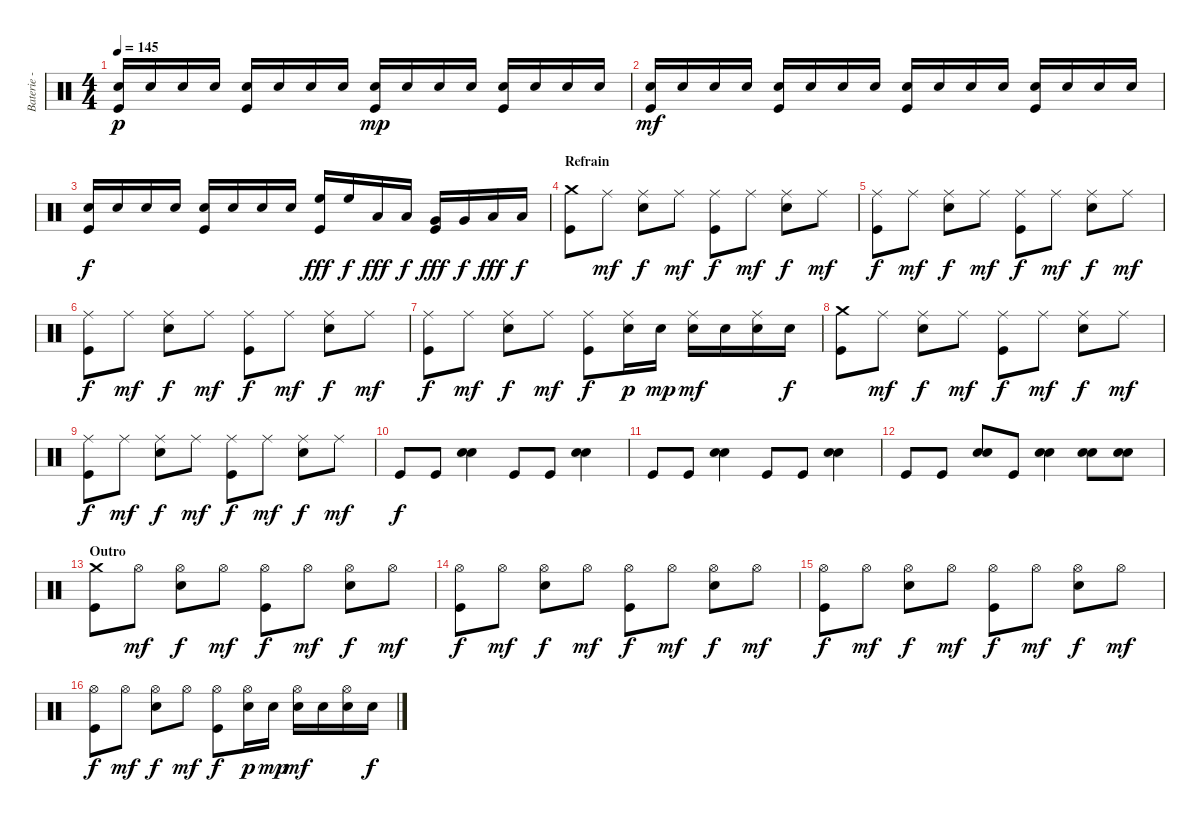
\track ("Baterie - Alex" "Baterie - ") {instrument percussion}
\staff {score}
\articulation defaults
\ts (4 4)
\tempo 145
\clef neutral
\ks c
("Electric Snare (hit)" "Kick (hit)").16{dy p} "Electric Snare (hit)".16 "Electric Snare (hit)".16 "Electric Snare (hit)".16 ("Electric Snare (hit)" "Kick (hit)").16 "Electric Snare (hit)".16 "Electric Snare (hit)".16 "Electric Snare (hit)".16 ("Electric Snare (hit)" "Kick (hit)").16{dy mp} "Electric Snare (hit)".16 "Electric Snare (hit)".16 "Electric Snare (hit)".16 ("Electric Snare (hit)" "Kick (hit)").16 "Electric Snare (hit)".16 "Electric Snare (hit)".16 "Electric Snare (hit)".16 |
("Electric Snare (hit)" "Kick (hit)").16{dy mf} "Electric Snare (hit)".16 "Electric Snare (hit)".16 "Electric Snare (hit)".16 ("Electric Snare (hit)" "Kick (hit)").16 "Electric Snare (hit)".16 "Electric Snare (hit)".16 "Electric Snare (hit)".16 ("Electric Snare (hit)" "Kick (hit)").16 "Electric Snare (hit)".16 "Electric Snare (hit)".16 "Electric Snare (hit)".16 ("Electric Snare (hit)" "Kick (hit)").16 "Electric Snare (hit)".16 "Electric Snare (hit)".16 "Electric Snare (hit)".16 |
("Electric Snare (hit)" "Kick (hit)").16{dy f} "Electric Snare (hit)".16 "Electric Snare (hit)".16 "Electric Snare (hit)".16 ("Electric Snare (hit)" "Kick (hit)").16 "Electric Snare (hit)".16 "Electric Snare (hit)".16 "Electric Snare (hit)".16 ("High Floor Tom (hit)" "Kick (hit)").16{dy fff} "High Floor Tom (hit)".16{dy f} "Low Tom (hit)".16{dy fff} "Low Tom (hit)".16{dy f} ("Very Low Tom (hit)" "Kick (hit)").16{dy fff} "Very Low Tom (hit)".16{dy f} "Low Floor Tom (hit)".16{dy fff} "Low Floor Tom (hit)".16{dy f} |
\section ("" "Refrain")
("Crash medium (hit)" "Kick (hit)").8 "Ride (middle)".8{dy mf} ("Ride (middle)" "Electric Snare (hit)").8{dy f} "Ride (middle)".8{dy mf} ("Ride (middle)" "Kick (hit)").8{dy f} "Ride (middle)".8{dy mf} ("Ride (middle)" "Electric Snare (hit)").8{dy f} "Ride (middle)".8{dy mf} |
("Ride (middle)" "Kick (hit)").8{dy f} "Ride (middle)".8{dy mf} ("Ride (middle)" "Electric Snare (hit)").8{dy f} "Ride (middle)".8{dy mf} ("Ride (middle)" "Kick (hit)").8{dy f} "Ride (middle)".8{dy mf} ("Ride (middle)" "Electric Snare (hit)").8{dy f} "Ride (middle)".8{dy mf} |
("Ride (middle)" "Kick (hit)").8{dy f} "Ride (middle)".8{dy mf} ("Ride (middle)" "Electric Snare (hit)").8{dy f} "Ride (middle)".8{dy mf} ("Ride (middle)" "Kick (hit)").8{dy f} "Ride (middle)".8{dy mf} ("Ride (middle)" "Electric Snare (hit)").8{dy f} "Ride (middle)".8{dy mf} |
("Ride (middle)" "Kick (hit)").8{dy f} "Ride (middle)".8{dy mf} ("Ride (middle)" "Electric Snare (hit)").8{dy f} "Ride (middle)".8{dy mf} ("Ride (middle)" "Kick (hit)").8{dy f} ("Ride (middle)" "Electric Snare (hit)").16{dy p} "Electric Snare (hit)".16{dy mp} ("Ride (middle)" "Electric Snare (hit)").16{dy mf} "Electric Snare (hit)".16 ("Ride (middle)" "Electric Snare (hit)").16 "Electric Snare (hit)".16{dy f} |
("Crash medium (hit)" "Kick (hit)").8 "Ride (middle)".8{dy mf} ("Ride (middle)" "Electric Snare (hit)").8{dy f} "Ride (middle)".8{dy mf} ("Ride (middle)" "Kick (hit)").8{dy f} "Ride (middle)".8{dy mf} ("Ride (middle)" "Electric Snare (hit)").8{dy f} "Ride (middle)".8{dy mf} |
("Ride (middle)" "Kick (hit)").8{dy f} "Ride (middle)".8{dy mf} ("Ride (middle)" "Electric Snare (hit)").8{dy f} "Ride (middle)".8{dy mf} ("Ride (middle)" "Kick (hit)").8{dy f} "Ride (middle)".8{dy mf} ("Ride (middle)" "Electric Snare (hit)").8{dy f} "Ride (middle)".8{dy mf} |
"Kick (hit)".8{dy f} "Kick (hit)".8 ("Snare (hit) 2" "Electric Snare (hit)").4 "Kick (hit)".8 "Kick (hit)".8 ("Snare (hit) 2" "Electric Snare (hit)").4 |
"Kick (hit)".8 "Kick (hit)".8 ("Snare (hit) 2" "Electric Snare (hit)").4 "Kick (hit)".8 "Kick (hit)".8 ("Snare (hit) 2" "Electric Snare (hit)").4 |
"Kick (hit)".8 "Kick (hit)".8 ("Snare (hit) 2" "Electric Snare (hit)").8 "Kick (hit)".8 ("Snare (hit) 2" "Electric Snare (hit)").4 ("Snare (hit) 2" "Electric Snare (hit)").8 ("Snare (hit) 2" "Electric Snare (hit)").8 |
\section ("" "Outro")
("Crash medium (hit)" "Kick (hit)").8 "Hi-Hat (open)".8{dy mf} ("Hi-Hat (open)" "Electric Snare (hit)").8{dy f} "Hi-Hat (open)".8{dy mf} ("Hi-Hat (open)" "Kick (hit)").8{dy f} "Hi-Hat (open)".8{dy mf} ("Hi-Hat (open)" "Electric Snare (hit)").8{dy f} "Hi-Hat (open)".8{dy mf} |
("Hi-Hat (open)" "Kick (hit)").8{dy f} "Hi-Hat (open)".8{dy mf} ("Hi-Hat (open)" "Electric Snare (hit)").8{dy f} "Hi-Hat (open)".8{dy mf} ("Hi-Hat (open)" "Kick (hit)").8{dy f} "Hi-Hat (open)".8{dy mf} ("Hi-Hat (open)" "Electric Snare (hit)").8{dy f} "Hi-Hat (open)".8{dy mf} |
("Hi-Hat (open)" "Kick (hit)").8{dy f} "Hi-Hat (open)".8{dy mf} ("Hi-Hat (open)" "Electric Snare (hit)").8{dy f} "Hi-Hat (open)".8{dy mf} ("Hi-Hat (open)" "Kick (hit)").8{dy f} "Hi-Hat (open)".8{dy mf} ("Hi-Hat (open)" "Electric Snare (hit)").8{dy f} "Hi-Hat (open)".8{dy mf} |
("Hi-Hat (open)" "Kick (hit)").8{dy f} "Hi-Hat (open)".8{dy mf} ("Hi-Hat (open)" "Electric Snare (hit)").8{dy f} "Hi-Hat (open)".8{dy mf} ("Hi-Hat (open)" "Kick (hit)").8{dy f} ("Hi-Hat (open)" "Electric Snare (hit)").16{dy p} "Electric Snare (hit)".16{dy mp} ("Hi-Hat (open)" "Electric Snare (hit)").16{dy mf} "Electric Snare (hit)".16 ("Hi-Hat (open)" "Electric Snare (hit)").16 "Electric Snare (hit)".16{dy f}
